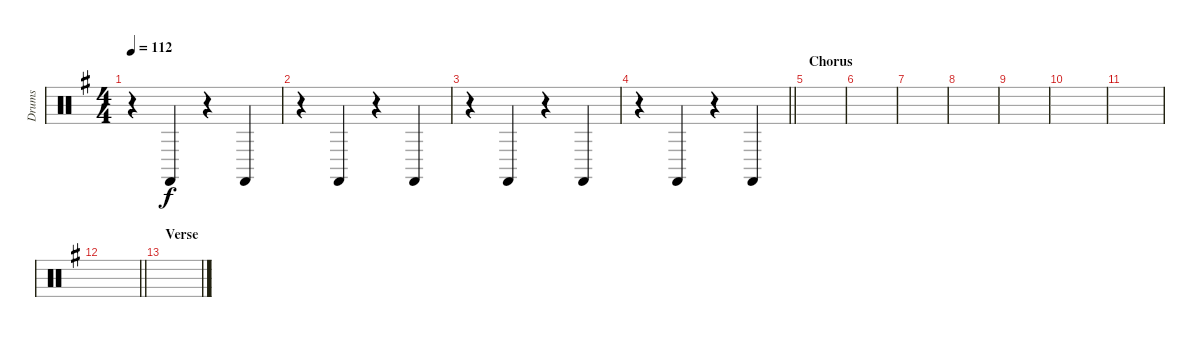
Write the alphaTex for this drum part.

\track ("Drums" "Drums") {instrument percussion}
\staff {score}
\articulation defaults
\ts (4 4)
\tempo 112
\clef neutral
\ks g
r.4{dy f} "Castanets (hit)".4 r.4 "Castanets (hit)".4 |
r.4 "Castanets (hit)".4 r.4 "Castanets (hit)".4 |
r.4 "Castanets (hit)".4 r.4 "Castanets (hit)".4 |
\barLineRight lightlight
r.4 "Castanets (hit)".4 r.4 "Castanets (hit)".4 |
\section ("" "Chorus")
|
|
|
|
|
|
|
\barLineRight lightlight
|
\section ("" "Verse")
